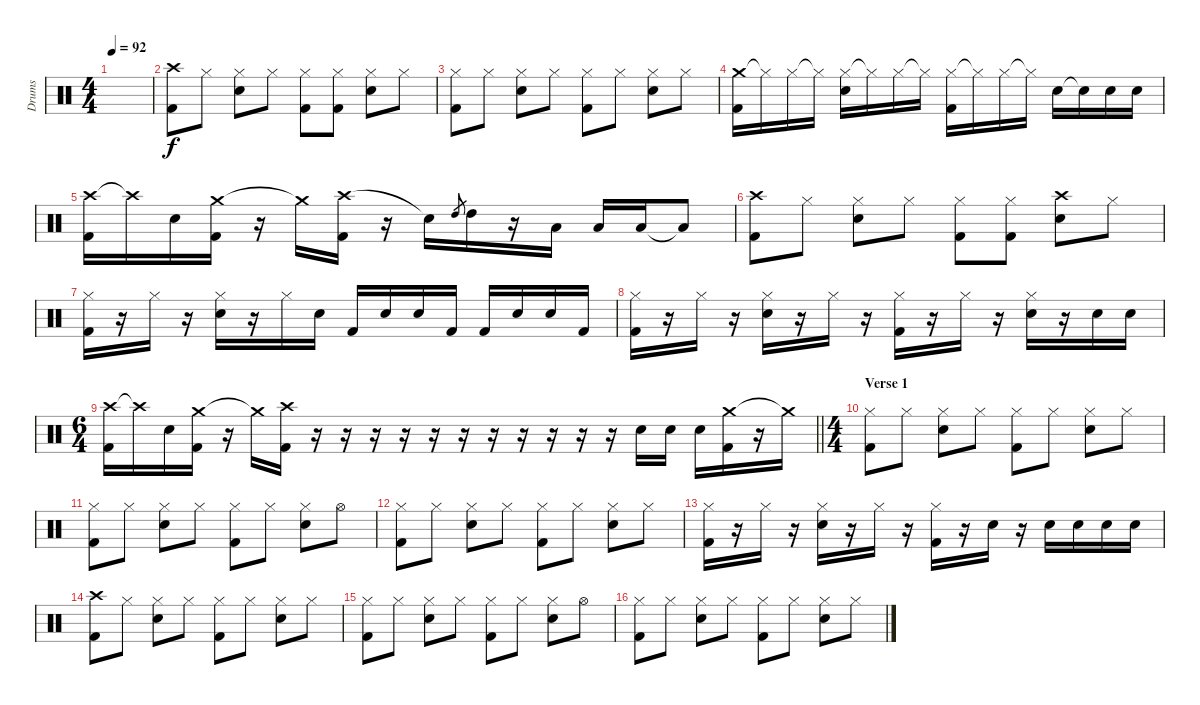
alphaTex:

\track ("Drums" "Drums") {instrument percussion}
\staff {score}
\articulation defaults
\ts (4 4)
\tempo 92
\clef neutral
\ks c
|
("Crash high (hit)" "Kick (hit) 2").8 "Hi-Hat (closed)".8 ("Hi-Hat (closed)" "Snare (hit) 2").8 "Hi-Hat (closed)".8 ("Hi-Hat (closed)" "Kick (hit) 2").8 ("Hi-Hat (closed)" "Kick (hit) 2").8 ("Hi-Hat (closed)" "Snare (hit) 2").8 "Hi-Hat (closed)".8 |
("Hi-Hat (closed)" "Kick (hit) 2").8 "Hi-Hat (closed)".8 ("Hi-Hat (closed)" "Snare (hit) 2").8 "Hi-Hat (closed)".8 ("Hi-Hat (closed)" "Kick (hit) 2").8 "Hi-Hat (closed)".8 ("Hi-Hat (closed)" "Snare (hit) 2").8 "Hi-Hat (closed)".8 |
("Crash medium (hit)" "Kick (hit) 2").16 "Hi-Hat (closed)"{t}.16 "Hi-Hat (closed)".16 "Hi-Hat (closed)"{t}.16 ("Hi-Hat (closed)" "Snare (hit) 2").16 "Hi-Hat (closed)"{t}.16 "Hi-Hat (closed)".16 "Hi-Hat (closed)"{t}.16 ("Hi-Hat (closed)" "Kick (hit) 2").16 "Hi-Hat (closed)"{t}.16 "Hi-Hat (closed)".16 "Hi-Hat (closed)"{t}.16 "Snare (hit) 2".16 "Snare (hit) 2"{t}.16 "Snare (hit) 2".16 "Snare (hit) 2".16 |
("Crash high (hit)" "Kick (hit) 2").16 "Crash high (hit)"{t}.16 "Snare (hit) 2".16 ("Crash medium (hit)" "Kick (hit) 2").16 r.16 "Crash medium (hit)"{t}.16 ("Crash high (hit)" "Kick (hit) 2").16 r.16 "Snare (hit)"{t}.16 "High Tom (hit)".8{gr} "High Tom (hit)".16 r.16 "Low Tom (hit)".16 "Low Tom (hit)".16 "Low Tom (hit)".16 "Low Tom (hit)"{t}.8 |
("Crash high (hit)" "Kick (hit) 2").8 "Hi-Hat (closed)".8 ("Hi-Hat (closed)" "Snare (hit) 2").8 "Hi-Hat (closed)".8 ("Hi-Hat (closed)" "Kick (hit) 2").8 ("Hi-Hat (closed)" "Kick (hit) 2").8 ("Crash high (hit)" "Snare (hit) 2").8 "Hi-Hat (closed)".8 |
("Hi-Hat (closed)" "Kick (hit) 2").16 r.16 "Hi-Hat (closed)".16 r.16 ("Hi-Hat (closed)" "Snare (hit) 2").16 r.16 "Hi-Hat (closed)".16 "Snare (hit) 2".16 "Kick (hit) 2".16 "Snare (hit) 2".16 "Snare (hit) 2".16 "Kick (hit) 2".16 "Kick (hit) 2".16 "Snare (hit) 2".16 "Snare (hit) 2".16 "Kick (hit) 2".16 |
("Hi-Hat (closed)" "Kick (hit) 2").16 r.16 "Hi-Hat (closed)".16 r.16 ("Hi-Hat (closed)" "Snare (hit) 2").16 r.16 "Hi-Hat (closed)".16 r.16 ("Hi-Hat (closed)" "Kick (hit) 2").16 r.16 "Hi-Hat (closed)".16 r.16 ("Hi-Hat (closed)" "Snare (hit) 2").16 r.16 "Snare (hit) 2".16 "Snare (hit) 2".16 |
\ts (6 4)
\barLineRight lightlight
("Crash high (hit)" "Kick (hit) 2").16 "Crash high (hit)"{t}.16 "Snare (hit) 2".16 ("Crash medium (hit)" "Kick (hit) 2").16 r.16 "Crash medium (hit)"{t}.16 ("Crash high (hit)" "Kick (hit) 2").16 r.16 r.16 r.16 r.16 r.16 r.16 r.16 r.16 r.16 r.16 r.16 "Snare (hit) 2".16 "Snare (hit) 2".16 "Snare (hit) 2".16 ("Crash medium (hit)" "Kick (hit) 2").16 r.16 "Crash medium (hit)"{t}.16 |
\ts (4 4)
\section ("" "Verse 1")
("Hi-Hat (closed)" "Kick (hit) 2").8 "Hi-Hat (closed)".8 ("Hi-Hat (closed)" "Snare (hit) 2").8 "Hi-Hat (closed)".8 ("Hi-Hat (closed)" "Kick (hit) 2").8 "Hi-Hat (closed)".8 ("Hi-Hat (closed)" "Snare (hit) 2").8 "Hi-Hat (closed)".8 |
("Hi-Hat (closed)" "Kick (hit) 2").8 "Hi-Hat (closed)".8 ("Hi-Hat (closed)" "Snare (hit) 2").8 "Hi-Hat (closed)".8 ("Hi-Hat (closed)" "Kick (hit) 2").8 "Hi-Hat (closed)".8 ("Hi-Hat (closed)" "Snare (hit) 2").8 "Hi-Hat (open)".8 |
("Hi-Hat (closed)" "Kick (hit) 2").8 "Hi-Hat (closed)".8 ("Hi-Hat (closed)" "Snare (hit) 2").8 "Hi-Hat (closed)".8 ("Hi-Hat (closed)" "Kick (hit) 2").8 "Hi-Hat (closed)".8 ("Hi-Hat (closed)" "Snare (hit) 2").8 "Hi-Hat (closed)".8 |
("Hi-Hat (closed)" "Kick (hit) 2").16 r.16 "Hi-Hat (closed)".16 r.16 ("Hi-Hat (closed)" "Snare (hit) 2").16 r.16 "Hi-Hat (closed)".16 r.16 ("Hi-Hat (closed)" "Kick (hit) 2").16 r.16 "Snare (hit) 2".16 r.16 "Snare (hit) 2".16 "Snare (hit) 2".16 "Snare (hit) 2".16 "Snare (hit) 2".16 |
("Crash high (hit)" "Kick (hit) 2").8 "Hi-Hat (closed)".8 ("Hi-Hat (closed)" "Snare (hit) 2").8 "Hi-Hat (closed)".8 ("Hi-Hat (closed)" "Kick (hit) 2").8 "Hi-Hat (closed)".8 ("Hi-Hat (closed)" "Snare (hit) 2").8 "Hi-Hat (closed)".8 |
("Hi-Hat (closed)" "Kick (hit) 2").8 "Hi-Hat (closed)".8 ("Hi-Hat (closed)" "Snare (hit) 2").8 "Hi-Hat (closed)".8 ("Hi-Hat (closed)" "Kick (hit) 2").8 "Hi-Hat (closed)".8 ("Hi-Hat (closed)" "Snare (hit) 2").8 "Hi-Hat (open)".8 |
("Hi-Hat (closed)" "Kick (hit) 2").8 "Hi-Hat (closed)".8 ("Hi-Hat (closed)" "Snare (hit) 2").8 "Hi-Hat (closed)".8 ("Hi-Hat (closed)" "Kick (hit) 2").8 "Hi-Hat (closed)".8 ("Hi-Hat (closed)" "Snare (hit) 2").8 "Hi-Hat (closed)".8
